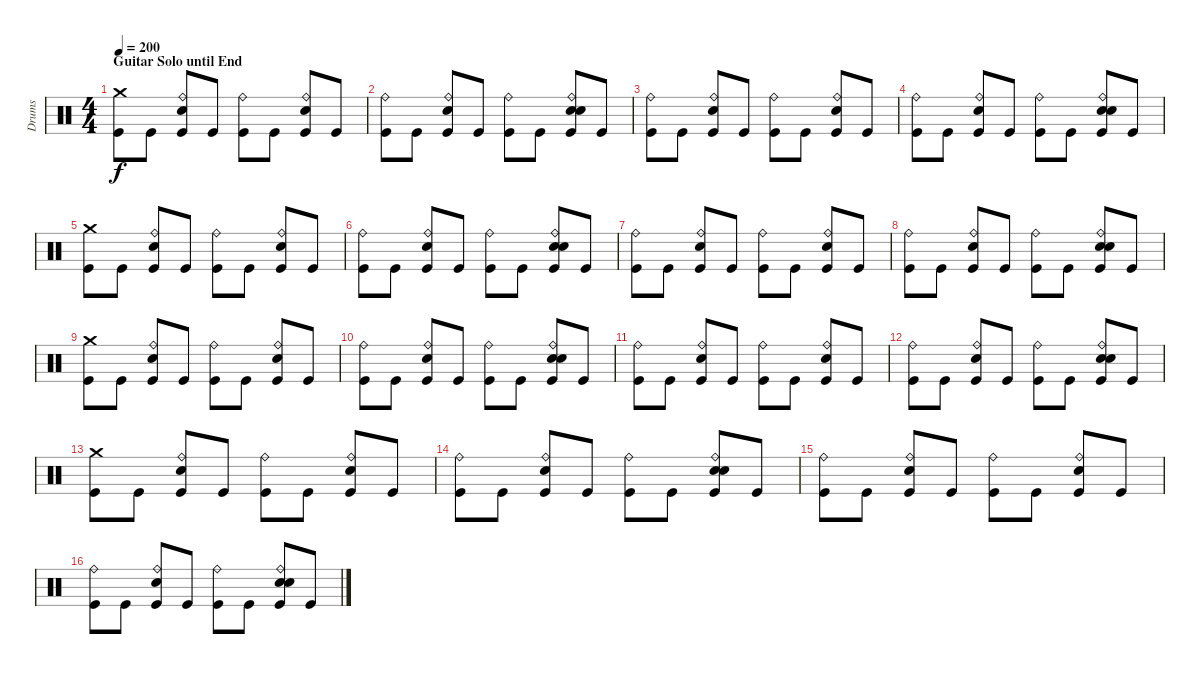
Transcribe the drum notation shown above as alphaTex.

\track ("Drums" "Drums") {instrument percussion}
\staff {score}
\articulation defaults
\ts (4 4)
\section ("" "Guitar Solo until End")
\tempo 200
\clef neutral
\ks c
("Crash medium (hit)" "Kick (hit)").8{dy f} "Kick (hit)".8 ("Ride (bell)" "Snare (hit) 2" "Kick (hit)").8 "Kick (hit)".8 ("Ride (bell)" "Kick (hit)").8 "Kick (hit)".8 ("Ride (bell)" "Snare (hit) 2" "Kick (hit)").8 "Kick (hit)".8 |
("Ride (bell)" "Kick (hit)").8 "Kick (hit)".8 ("Ride (bell)" "Snare (hit) 2" "Kick (hit)").8 "Kick (hit)".8 ("Ride (bell)" "Kick (hit)").8 "Kick (hit)".8 ("Ride (bell)" "Hand Clap (hit)" "Snare (hit) 2" "Kick (hit)").8 "Kick (hit)".8 |
("Ride (bell)" "Kick (hit)").8 "Kick (hit)".8 ("Ride (bell)" "Snare (hit) 2" "Kick (hit)").8 "Kick (hit)".8 ("Ride (bell)" "Kick (hit)").8 "Kick (hit)".8 ("Ride (bell)" "Snare (hit) 2" "Kick (hit)").8 "Kick (hit)".8 |
("Ride (bell)" "Kick (hit)").8 "Kick (hit)".8 ("Ride (bell)" "Snare (hit) 2" "Kick (hit)").8 "Kick (hit)".8 ("Ride (bell)" "Kick (hit)").8 "Kick (hit)".8 ("Ride (bell)" "Hand Clap (hit)" "Snare (hit) 2" "Kick (hit)").8 "Kick (hit)".8 |
("Crash medium (hit)" "Kick (hit)").8 "Kick (hit)".8 ("Ride (bell)" "Snare (hit) 2" "Kick (hit)").8 "Kick (hit)".8 ("Ride (bell)" "Kick (hit)").8 "Kick (hit)".8 ("Ride (bell)" "Snare (hit) 2" "Kick (hit)").8 "Kick (hit)".8 |
("Ride (bell)" "Kick (hit)").8 "Kick (hit)".8 ("Ride (bell)" "Snare (hit) 2" "Kick (hit)").8 "Kick (hit)".8 ("Ride (bell)" "Kick (hit)").8 "Kick (hit)".8 ("Ride (bell)" "Hand Clap (hit)" "Snare (hit) 2" "Kick (hit)").8 "Kick (hit)".8 |
("Ride (bell)" "Kick (hit)").8 "Kick (hit)".8 ("Ride (bell)" "Snare (hit) 2" "Kick (hit)").8 "Kick (hit)".8 ("Ride (bell)" "Kick (hit)").8 "Kick (hit)".8 ("Ride (bell)" "Snare (hit) 2" "Kick (hit)").8 "Kick (hit)".8 |
("Ride (bell)" "Kick (hit)").8 "Kick (hit)".8 ("Ride (bell)" "Snare (hit) 2" "Kick (hit)").8 "Kick (hit)".8 ("Ride (bell)" "Kick (hit)").8 "Kick (hit)".8 ("Ride (bell)" "Hand Clap (hit)" "Snare (hit) 2" "Kick (hit)").8 "Kick (hit)".8 |
("Crash medium (hit)" "Kick (hit)").8 "Kick (hit)".8 ("Ride (bell)" "Snare (hit) 2" "Kick (hit)").8 "Kick (hit)".8 ("Ride (bell)" "Kick (hit)").8 "Kick (hit)".8 ("Ride (bell)" "Snare (hit) 2" "Kick (hit)").8 "Kick (hit)".8 |
("Ride (bell)" "Kick (hit)").8 "Kick (hit)".8 ("Ride (bell)" "Snare (hit) 2" "Kick (hit)").8 "Kick (hit)".8 ("Ride (bell)" "Kick (hit)").8 "Kick (hit)".8 ("Ride (bell)" "Hand Clap (hit)" "Snare (hit) 2" "Kick (hit)").8 "Kick (hit)".8 |
("Ride (bell)" "Kick (hit)").8 "Kick (hit)".8 ("Ride (bell)" "Snare (hit) 2" "Kick (hit)").8 "Kick (hit)".8 ("Ride (bell)" "Kick (hit)").8 "Kick (hit)".8 ("Ride (bell)" "Snare (hit) 2" "Kick (hit)").8 "Kick (hit)".8 |
("Ride (bell)" "Kick (hit)").8 "Kick (hit)".8 ("Ride (bell)" "Snare (hit) 2" "Kick (hit)").8 "Kick (hit)".8 ("Ride (bell)" "Kick (hit)").8 "Kick (hit)".8 ("Ride (bell)" "Hand Clap (hit)" "Snare (hit) 2" "Kick (hit)").8 "Kick (hit)".8 |
("Crash medium (hit)" "Kick (hit)").8 "Kick (hit)".8 ("Ride (bell)" "Snare (hit) 2" "Kick (hit)").8 "Kick (hit)".8 ("Ride (bell)" "Kick (hit)").8 "Kick (hit)".8 ("Ride (bell)" "Snare (hit) 2" "Kick (hit)").8 "Kick (hit)".8 |
("Ride (bell)" "Kick (hit)").8 "Kick (hit)".8 ("Ride (bell)" "Snare (hit) 2" "Kick (hit)").8 "Kick (hit)".8 ("Ride (bell)" "Kick (hit)").8 "Kick (hit)".8 ("Ride (bell)" "Hand Clap (hit)" "Snare (hit) 2" "Kick (hit)").8 "Kick (hit)".8 |
("Ride (bell)" "Kick (hit)").8 "Kick (hit)".8 ("Ride (bell)" "Snare (hit) 2" "Kick (hit)").8 "Kick (hit)".8 ("Ride (bell)" "Kick (hit)").8 "Kick (hit)".8 ("Ride (bell)" "Snare (hit) 2" "Kick (hit)").8 "Kick (hit)".8 |
("Ride (bell)" "Kick (hit)").8 "Kick (hit)".8 ("Ride (bell)" "Snare (hit) 2" "Kick (hit)").8 "Kick (hit)".8 ("Ride (bell)" "Kick (hit)").8 "Kick (hit)".8 ("Ride (bell)" "Hand Clap (hit)" "Snare (hit) 2" "Kick (hit)").8 "Kick (hit)".8
